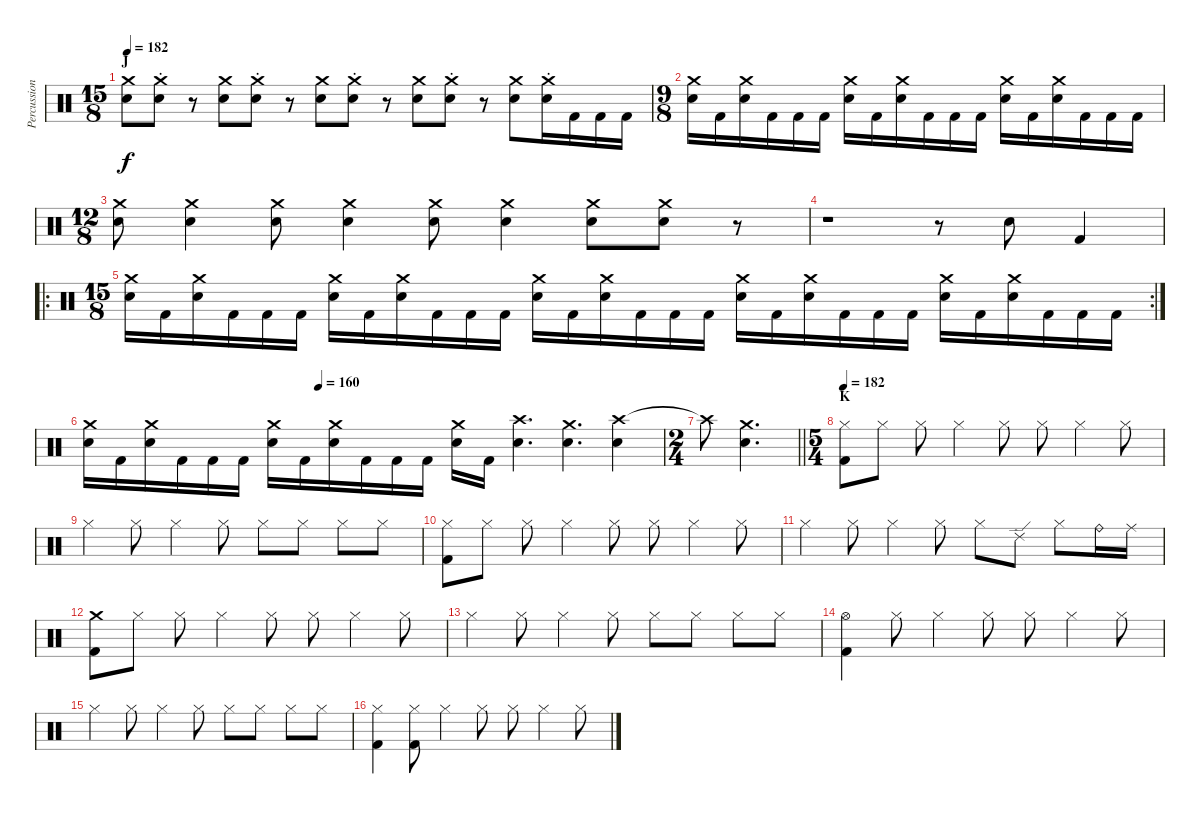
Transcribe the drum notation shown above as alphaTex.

\track ("Percussion" "Percussion") {instrument percussion}
\staff {score}
\articulation defaults
\ts (15 8)
\section ("" "J")
\tempo 182
\clef neutral
\ks c
("Crash medium (hit)" "Electric Snare (hit)").8{dy f} ("Crash medium (hit)"{st} "Electric Snare (hit)").8 r.8{volume 0} ("Crash medium (hit)" "Electric Snare (hit)").8{volume 14} ("Crash medium (hit)"{st} "Electric Snare (hit)").8 r.8{volume 0} ("Crash medium (hit)" "Electric Snare (hit)").8{volume 14} ("Crash medium (hit)"{st} "Electric Snare (hit)").8 r.8{volume 0} ("Crash medium (hit)" "Electric Snare (hit)").8{volume 14} ("Crash medium (hit)"{st} "Electric Snare (hit)").8 r.8{volume 0} ("Crash medium (hit)" "Electric Snare (hit)").8{volume 14} ("Crash medium (hit)"{st} "Electric Snare (hit)").16 "Kick (hit) 2".16 "Kick (hit) 2".16 "Kick (hit) 2".16 |
\ts (9 8)
("Crash medium (hit)" "Electric Snare (hit)").16 "Kick (hit) 2".16 ("Crash medium (hit)" "Electric Snare (hit)").16 "Kick (hit) 2".16 "Kick (hit) 2".16 "Kick (hit) 2".16 ("Crash medium (hit)" "Electric Snare (hit)").16 "Kick (hit) 2".16 ("Crash medium (hit)" "Electric Snare (hit)").16 "Kick (hit) 2".16 "Kick (hit) 2".16 "Kick (hit) 2".16 ("Crash medium (hit)" "Electric Snare (hit)").16 "Kick (hit) 2".16 ("Crash medium (hit)" "Electric Snare (hit)").16 "Kick (hit) 2".16 "Kick (hit) 2".16 "Kick (hit) 2".16 |
\ts (12 8)
("Crash medium (hit)" "Electric Snare (hit)").8 ("Crash medium (hit)" "Electric Snare (hit)").4 ("Crash medium (hit)" "Electric Snare (hit)").8 ("Crash medium (hit)" "Electric Snare (hit)").4 ("Crash medium (hit)" "Electric Snare (hit)").8 ("Crash medium (hit)" "Electric Snare (hit)").4 ("Crash medium (hit)" "Electric Snare (hit)").8 ("Crash medium (hit)" "Electric Snare (hit)").8 r.8{volume 0} |
r.1 r.8 "Electric Snare (hit)".8{volume 14} "Kick (hit) 2".4 |
\ro
\rc 2
\ts (15 8)
("Crash medium (hit)" "Electric Snare (hit)").16 "Kick (hit) 2".16 ("Crash medium (hit)" "Electric Snare (hit)").16 "Kick (hit) 2".16 "Kick (hit) 2".16 "Kick (hit) 2".16 ("Crash medium (hit)" "Electric Snare (hit)").16 "Kick (hit) 2".16 ("Crash medium (hit)" "Electric Snare (hit)").16 "Kick (hit) 2".16 "Kick (hit) 2".16 "Kick (hit) 2".16 ("Crash medium (hit)" "Electric Snare (hit)").16 "Kick (hit) 2".16 ("Crash medium (hit)" "Electric Snare (hit)").16 "Kick (hit) 2".16 "Kick (hit) 2".16 "Kick (hit) 2".16 ("Crash medium (hit)" "Electric Snare (hit)").16 "Kick (hit) 2".16 ("Crash medium (hit)" "Electric Snare (hit)").16 "Kick (hit) 2".16 "Kick (hit) 2".16 "Kick (hit) 2".16 ("Crash medium (hit)" "Electric Snare (hit)").16 "Kick (hit) 2".16 ("Crash medium (hit)" "Electric Snare (hit)").16 "Kick (hit) 2".16 "Kick (hit) 2".16 "Kick (hit) 2".16 |
\tempo (160 0.4)
("Crash medium (hit)" "Electric Snare (hit)").16 "Kick (hit) 2".16 ("Crash medium (hit)" "Electric Snare (hit)").16 "Kick (hit) 2".16 "Kick (hit) 2".16 "Kick (hit) 2".16 ("Crash medium (hit)" "Electric Snare (hit)").16 "Kick (hit) 2".16 ("Crash medium (hit)" "Electric Snare (hit)").16 "Kick (hit) 2".16 "Kick (hit) 2".16 "Kick (hit) 2".16 ("Crash medium (hit)" "Electric Snare (hit)").16 "Kick (hit) 2".16 ("Crash high (hit)" "Electric Snare (hit)").4{d} ("Crash medium (hit)" "Electric Snare (hit)").4{d} ("Crash high (hit)" "Electric Snare (hit)").4 |
\ts (2 4)
\barLineRight lightlight "Crash high (hit)"{t}.8
("Crash medium (hit)" "Electric Snare (hit)").4{d} |
\ts (5 4)
\section ("" "K")
\tempo 182
("Hi-Hat (closed)" "Kick (hit) 2").8 "Hi-Hat (closed)".8 "Hi-Hat (closed)".8 "Hi-Hat (closed)".4 "Hi-Hat (closed)".8 "Hi-Hat (closed)".8 "Hi-Hat (closed)".4 "Hi-Hat (closed)".8 |
"Hi-Hat (closed)".4 "Hi-Hat (closed)".8 "Hi-Hat (closed)".4 "Hi-Hat (closed)".8 "Hi-Hat (closed)".8 "Hi-Hat (closed)".8 "Hi-Hat (closed)".8 "Hi-Hat (closed)".8 |
("Hi-Hat (closed)" "Kick (hit) 2").8 "Hi-Hat (closed)".8 "Hi-Hat (closed)".8 "Hi-Hat (closed)".4 "Hi-Hat (closed)".8 "Hi-Hat (closed)".8 "Hi-Hat (closed)".4 "Hi-Hat (closed)".8 |
"Hi-Hat (closed)".4 "Hi-Hat (closed)".8 "Hi-Hat (closed)".4 "Hi-Hat (closed)".8 "Hi-Hat (closed)".8 "Ride (edge) 2".8 "Hi-Hat (closed)".8 "Ride (bell)".16 "Ride (middle)".16 |
("Crash medium (hit)" "Kick (hit) 2").8 "Hi-Hat (closed)".8 "Hi-Hat (closed)".8 "Hi-Hat (closed)".4 "Hi-Hat (closed)".8 "Hi-Hat (closed)".8 "Hi-Hat (closed)".4 "Hi-Hat (closed)".8 |
"Hi-Hat (closed)".4 "Hi-Hat (closed)".8 "Hi-Hat (closed)".4 "Hi-Hat (closed)".8 "Hi-Hat (closed)".8 "Hi-Hat (closed)".8 "Hi-Hat (closed)".8 "Hi-Hat (closed)".8 |
("Hi-Hat (open)" "Kick (hit) 2").4 "Hi-Hat (closed)".8 "Hi-Hat (closed)".4 "Hi-Hat (closed)".8 "Hi-Hat (closed)".8 "Hi-Hat (closed)".4 "Hi-Hat (closed)".8 |
"Hi-Hat (closed)".4 "Hi-Hat (closed)".8 "Hi-Hat (closed)".4 "Hi-Hat (closed)".8 "Hi-Hat (closed)".8 "Hi-Hat (closed)".8 "Hi-Hat (closed)".8 "Hi-Hat (closed)".8 |
("Hi-Hat (closed)" "Kick (hit) 2").4 ("Hi-Hat (closed)" "Kick (hit) 2").8 "Hi-Hat (closed)".4 "Hi-Hat (closed)".8 "Hi-Hat (closed)".8 "Hi-Hat (closed)".4 "Hi-Hat (closed)".8
